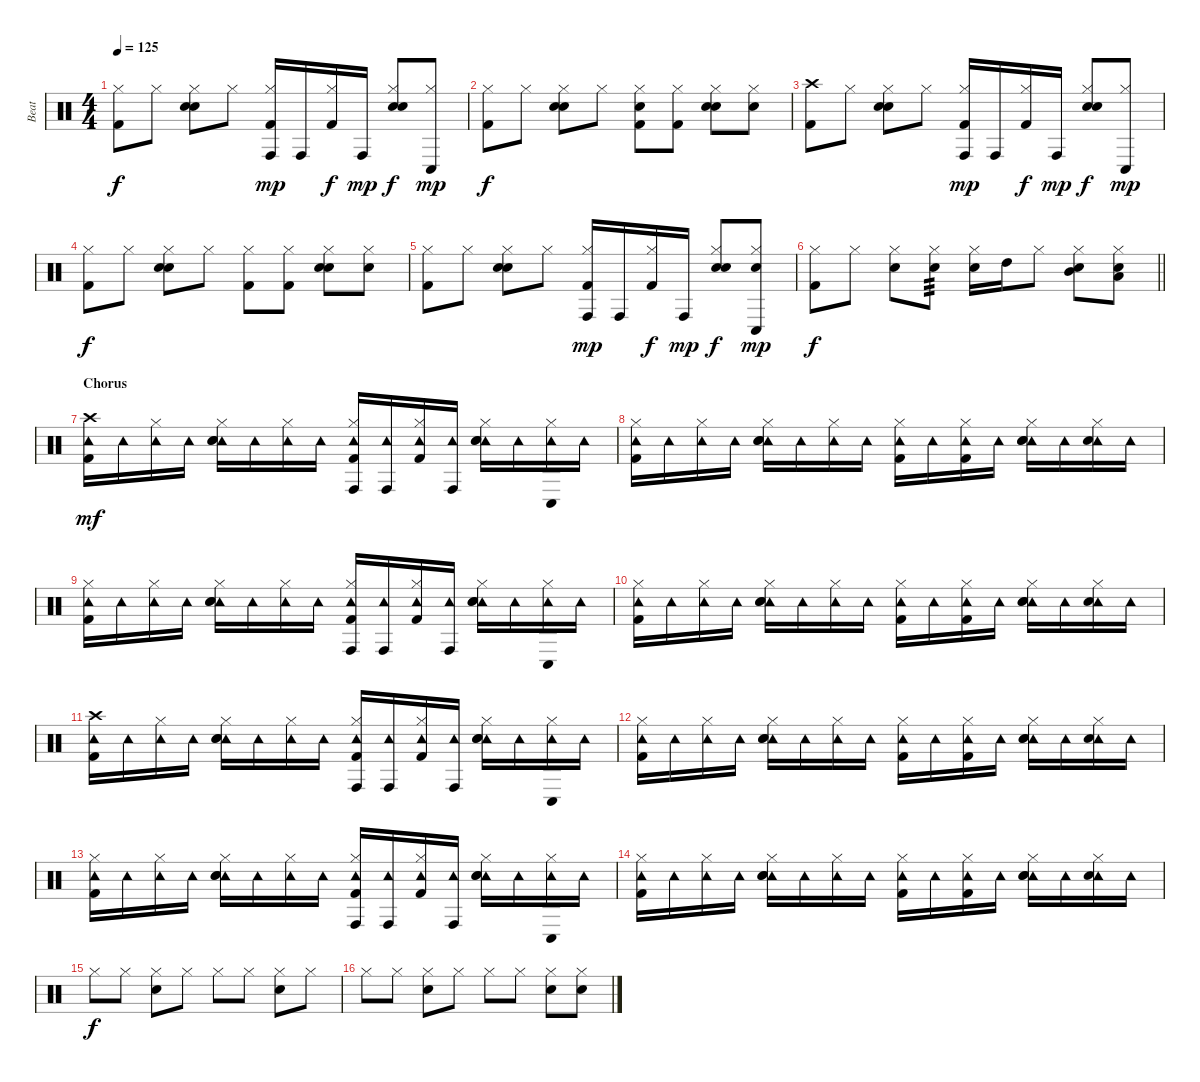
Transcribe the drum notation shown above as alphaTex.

\track ("Beat" "Beat") {instrument percussion}
\staff {score}
\articulation defaults
\ts (4 4)
\tempo 125
\clef neutral
\ks c
("Hi-Hat (closed)" "Kick (hit) 2").8{dy f} "Hi-Hat (closed)".8 ("Hi-Hat (closed)" "Snare (hit) 2" "Hand Clap (hit)").8 "Hi-Hat (closed)".8 ("Conga high (hit)" "Hi-Hat (closed)" "Kick (hit) 2").16{dy mp} "Conga high (hit)".16 ("Hi-Hat (closed)" "Kick (hit) 2").16{dy f} "Conga high (hit)".16{dy mp} ("Hi-Hat (closed)" "Snare (hit) 2" "Hand Clap (hit)").8{dy f} ("Conga low (hit)" "Hi-Hat (closed)").8{dy mp} |
("Hi-Hat (closed)" "Kick (hit) 2").8{dy f} "Hi-Hat (closed)".8 ("Hi-Hat (closed)" "Snare (hit) 2" "Hand Clap (hit)").8 "Hi-Hat (closed)".8 ("Hi-Hat (closed)" "Hand Clap (hit)" "Kick (hit) 2").8 ("Hi-Hat (closed)" "Kick (hit) 2").8 ("Hi-Hat (closed)" "Snare (hit) 2" "Hand Clap (hit)").8 ("Hi-Hat (closed)" "Hand Clap (hit)").8 |
("Crash high (hit)" "Kick (hit) 2").8 "Hi-Hat (closed)".8 ("Hi-Hat (closed)" "Snare (hit) 2" "Hand Clap (hit)").8 "Hi-Hat (closed)".8 ("Conga high (hit)" "Hi-Hat (closed)" "Kick (hit) 2").16{dy mp} "Conga high (hit)".16 ("Hi-Hat (closed)" "Kick (hit) 2").16{dy f} "Conga high (hit)".16{dy mp} ("Hi-Hat (closed)" "Snare (hit) 2" "Hand Clap (hit)").8{dy f} ("Conga low (hit)" "Hi-Hat (closed)").8{dy mp} |
("Hi-Hat (closed)" "Kick (hit) 2").8{dy f} "Hi-Hat (closed)".8 ("Hi-Hat (closed)" "Snare (hit) 2" "Hand Clap (hit)").8 "Hi-Hat (closed)".8 ("Hi-Hat (closed)" "Kick (hit) 2").8 ("Hi-Hat (closed)" "Kick (hit) 2").8 ("Hi-Hat (closed)" "Snare (hit) 2" "Hand Clap (hit)").8 ("Hi-Hat (closed)" "Hand Clap (hit)").8 |
("Hi-Hat (closed)" "Kick (hit) 2").8 "Hi-Hat (closed)".8 ("Hi-Hat (closed)" "Snare (hit) 2" "Hand Clap (hit)").8 "Hi-Hat (closed)".8 ("Conga high (hit)" "Hi-Hat (closed)" "Kick (hit) 2").16{dy mp} "Conga high (hit)".16 ("Hi-Hat (closed)" "Kick (hit) 2").16{dy f} "Conga high (hit)".16{dy mp} ("Hi-Hat (closed)" "Snare (hit) 2" "Hand Clap (hit)").8{dy f} ("Conga low (hit)" "Hi-Hat (closed)" "Hand Clap (hit)").8{dy mp} |
\barLineRight lightlight
("Hi-Hat (closed)" "Kick (hit) 2").8{dy f} "Hi-Hat (closed)".8 ("Hi-Hat (closed)" "Hand Clap (hit)").8 ("Hi-Hat (closed)" "Snare (hit) 2").8{tp 3} ("Hi-Hat (closed)" "Snare (hit) 2").16 "High Tom (hit)".16 "Hi-Hat (closed)".8 ("Hi-Hat (closed)" "Mid Tom (hit)" "Hand Clap (hit)").8 ("Hi-Hat (closed)" "Hand Clap (hit)" "Low Tom (hit)").8 |
\section ("" "Chorus")
("Crash high (hit)" "Tambourine (hit)" "Kick (hit) 2").16{dy mf} "Tambourine (hit)".16 ("Hi-Hat (closed)" "Tambourine (hit)").16 "Tambourine (hit)".16 ("Hi-Hat (closed)" "Tambourine (hit)" "Snare (hit) 2" "Hand Clap (hit)").16 "Tambourine (hit)".16 ("Hi-Hat (closed)" "Tambourine (hit)").16 "Tambourine (hit)".16 ("Conga high (hit)" "Hi-Hat (closed)" "Tambourine (hit)" "Kick (hit) 2").16 ("Conga high (hit)" "Tambourine (hit)").16 ("Hi-Hat (closed)" "Tambourine (hit)" "Kick (hit) 2").16 ("Conga high (hit)" "Tambourine (hit)").16 ("Hi-Hat (closed)" "Tambourine (hit)" "Snare (hit) 2" "Hand Clap (hit)").16 "Tambourine (hit)".16 ("Conga low (hit)" "Hi-Hat (closed)" "Tambourine (hit)").16 "Tambourine (hit)".16 |
("Hi-Hat (closed)" "Tambourine (hit)" "Kick (hit) 2").16 "Tambourine (hit)".16 ("Hi-Hat (closed)" "Tambourine (hit)").16 "Tambourine (hit)".16 ("Hi-Hat (closed)" "Tambourine (hit)" "Snare (hit) 2" "Hand Clap (hit)").16 "Tambourine (hit)".16 ("Hi-Hat (closed)" "Tambourine (hit)").16 "Tambourine (hit)".16 ("Hi-Hat (closed)" "Tambourine (hit)" "Kick (hit) 2").16 "Tambourine (hit)".16 ("Hi-Hat (closed)" "Tambourine (hit)" "Kick (hit) 2").16 "Tambourine (hit)".16 ("Hi-Hat (closed)" "Tambourine (hit)" "Snare (hit) 2" "Hand Clap (hit)").16 "Tambourine (hit)".16 ("Hi-Hat (closed)" "Tambourine (hit)" "Hand Clap (hit)").16 "Tambourine (hit)".16 |
("Hi-Hat (closed)" "Tambourine (hit)" "Kick (hit) 2").16 "Tambourine (hit)".16 ("Hi-Hat (closed)" "Tambourine (hit)").16 "Tambourine (hit)".16 ("Hi-Hat (closed)" "Tambourine (hit)" "Snare (hit) 2" "Hand Clap (hit)").16 "Tambourine (hit)".16 ("Hi-Hat (closed)" "Tambourine (hit)").16 "Tambourine (hit)".16 ("Conga high (hit)" "Hi-Hat (closed)" "Tambourine (hit)" "Kick (hit) 2").16 ("Conga high (hit)" "Tambourine (hit)").16 ("Hi-Hat (closed)" "Tambourine (hit)" "Kick (hit) 2").16 ("Conga high (hit)" "Tambourine (hit)").16 ("Hi-Hat (closed)" "Tambourine (hit)" "Snare (hit) 2" "Hand Clap (hit)").16 "Tambourine (hit)".16 ("Conga low (hit)" "Hi-Hat (closed)" "Tambourine (hit)").16 "Tambourine (hit)".16 |
("Hi-Hat (closed)" "Tambourine (hit)" "Kick (hit) 2").16 "Tambourine (hit)".16 ("Hi-Hat (closed)" "Tambourine (hit)").16 "Tambourine (hit)".16 ("Hi-Hat (closed)" "Tambourine (hit)" "Snare (hit) 2" "Hand Clap (hit)").16 "Tambourine (hit)".16 ("Hi-Hat (closed)" "Tambourine (hit)").16 "Tambourine (hit)".16 ("Hi-Hat (closed)" "Tambourine (hit)" "Kick (hit) 2").16 "Tambourine (hit)".16 ("Hi-Hat (closed)" "Tambourine (hit)" "Kick (hit) 2").16 "Tambourine (hit)".16 ("Hi-Hat (closed)" "Tambourine (hit)" "Snare (hit) 2" "Hand Clap (hit)").16 "Tambourine (hit)".16 ("Hi-Hat (closed)" "Tambourine (hit)" "Hand Clap (hit)").16 "Tambourine (hit)".16 |
("Crash high (hit)" "Tambourine (hit)" "Kick (hit) 2").16 "Tambourine (hit)".16 ("Hi-Hat (closed)" "Tambourine (hit)").16 "Tambourine (hit)".16 ("Hi-Hat (closed)" "Tambourine (hit)" "Snare (hit) 2" "Hand Clap (hit)").16 "Tambourine (hit)".16 ("Hi-Hat (closed)" "Tambourine (hit)").16 "Tambourine (hit)".16 ("Conga high (hit)" "Hi-Hat (closed)" "Tambourine (hit)" "Kick (hit) 2").16 ("Conga high (hit)" "Tambourine (hit)").16 ("Hi-Hat (closed)" "Tambourine (hit)" "Kick (hit) 2").16 ("Conga high (hit)" "Tambourine (hit)").16 ("Hi-Hat (closed)" "Tambourine (hit)" "Snare (hit) 2" "Hand Clap (hit)").16 "Tambourine (hit)".16 ("Conga low (hit)" "Hi-Hat (closed)" "Tambourine (hit)").16 "Tambourine (hit)".16 |
("Hi-Hat (closed)" "Tambourine (hit)" "Kick (hit) 2").16 "Tambourine (hit)".16 ("Hi-Hat (closed)" "Tambourine (hit)").16 "Tambourine (hit)".16 ("Hi-Hat (closed)" "Tambourine (hit)" "Snare (hit) 2" "Hand Clap (hit)").16 "Tambourine (hit)".16 ("Hi-Hat (closed)" "Tambourine (hit)").16 "Tambourine (hit)".16 ("Hi-Hat (closed)" "Tambourine (hit)" "Kick (hit) 2").16 "Tambourine (hit)".16 ("Hi-Hat (closed)" "Tambourine (hit)" "Kick (hit) 2").16 "Tambourine (hit)".16 ("Hi-Hat (closed)" "Tambourine (hit)" "Snare (hit) 2" "Hand Clap (hit)").16 "Tambourine (hit)".16 ("Hi-Hat (closed)" "Tambourine (hit)" "Hand Clap (hit)").16 "Tambourine (hit)".16 |
("Hi-Hat (closed)" "Tambourine (hit)" "Kick (hit) 2").16 "Tambourine (hit)".16 ("Hi-Hat (closed)" "Tambourine (hit)").16 "Tambourine (hit)".16 ("Hi-Hat (closed)" "Tambourine (hit)" "Snare (hit) 2" "Hand Clap (hit)").16 "Tambourine (hit)".16 ("Hi-Hat (closed)" "Tambourine (hit)").16 "Tambourine (hit)".16 ("Conga high (hit)" "Hi-Hat (closed)" "Tambourine (hit)" "Kick (hit) 2").16 ("Conga high (hit)" "Tambourine (hit)").16 ("Hi-Hat (closed)" "Tambourine (hit)" "Kick (hit) 2").16 ("Conga high (hit)" "Tambourine (hit)").16 ("Hi-Hat (closed)" "Tambourine (hit)" "Snare (hit) 2" "Hand Clap (hit)").16 "Tambourine (hit)".16 ("Conga low (hit)" "Hi-Hat (closed)" "Tambourine (hit)").16 "Tambourine (hit)".16 |
("Hi-Hat (closed)" "Tambourine (hit)" "Kick (hit) 2").16 "Tambourine (hit)".16 ("Hi-Hat (closed)" "Tambourine (hit)").16 "Tambourine (hit)".16 ("Hi-Hat (closed)" "Tambourine (hit)" "Snare (hit) 2" "Hand Clap (hit)").16 "Tambourine (hit)".16 ("Hi-Hat (closed)" "Tambourine (hit)").16 "Tambourine (hit)".16 ("Hi-Hat (closed)" "Tambourine (hit)" "Kick (hit) 2").16 "Tambourine (hit)".16 ("Hi-Hat (closed)" "Tambourine (hit)" "Kick (hit) 2").16 "Tambourine (hit)".16 ("Hi-Hat (closed)" "Tambourine (hit)" "Snare (hit) 2" "Hand Clap (hit)").16 "Tambourine (hit)".16 ("Hi-Hat (closed)" "Tambourine (hit)" "Hand Clap (hit)").16 "Tambourine (hit)".16 |
"Hi-Hat (closed)".8{dy f} "Hi-Hat (closed)".8 ("Hi-Hat (closed)" "Hand Clap (hit)").8 "Hi-Hat (closed)".8 "Hi-Hat (closed)".8 "Hi-Hat (closed)".8 ("Hi-Hat (closed)" "Hand Clap (hit)").8 "Hi-Hat (closed)".8 |
"Hi-Hat (closed)".8 "Hi-Hat (closed)".8 ("Hi-Hat (closed)" "Hand Clap (hit)").8 "Hi-Hat (closed)".8 "Hi-Hat (closed)".8 "Hi-Hat (closed)".8 ("Hi-Hat (closed)" "Hand Clap (hit)").8 ("Hi-Hat (closed)" "Hand Clap (hit)").8
